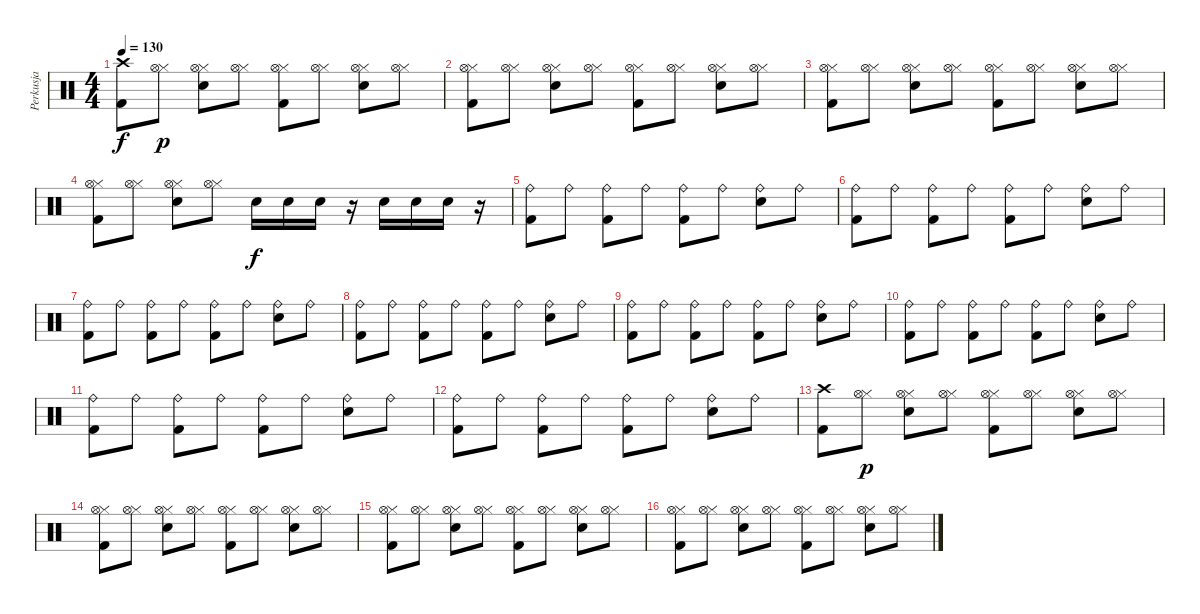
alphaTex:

\track ("Perkusja" "Perkusja") {instrument percussion}
\staff {score}
\articulation defaults
\ts (4 4)
\tempo 130
\clef neutral
\ks c
("Kick (hit) 2" "Crash high (hit)").8{dy f} ("Hi-Hat (closed)" "Hi-Hat (open)").8{dy p} ("Electric Snare (hit)" "Hi-Hat (closed)" "Hi-Hat (open)").8 ("Hi-Hat (closed)" "Hi-Hat (open)").8 ("Kick (hit) 2" "Hi-Hat (closed)" "Hi-Hat (open)").8 ("Hi-Hat (closed)" "Hi-Hat (open)").8 ("Electric Snare (hit)" "Hi-Hat (closed)" "Hi-Hat (open)").8 ("Hi-Hat (closed)" "Hi-Hat (open)").8 |
("Kick (hit) 2" "Hi-Hat (closed)" "Hi-Hat (open)").8 ("Hi-Hat (closed)" "Hi-Hat (open)").8 ("Electric Snare (hit)" "Hi-Hat (closed)" "Hi-Hat (open)").8 ("Hi-Hat (closed)" "Hi-Hat (open)").8 ("Kick (hit) 2" "Hi-Hat (closed)" "Hi-Hat (open)").8 ("Hi-Hat (closed)" "Hi-Hat (open)").8 ("Electric Snare (hit)" "Hi-Hat (closed)" "Hi-Hat (open)").8 ("Hi-Hat (closed)" "Hi-Hat (open)").8 |
("Kick (hit) 2" "Hi-Hat (closed)" "Hi-Hat (open)").8 ("Hi-Hat (closed)" "Hi-Hat (open)").8 ("Electric Snare (hit)" "Hi-Hat (closed)" "Hi-Hat (open)").8 ("Hi-Hat (closed)" "Hi-Hat (open)").8 ("Kick (hit) 2" "Hi-Hat (closed)" "Hi-Hat (open)").8 ("Hi-Hat (closed)" "Hi-Hat (open)").8 ("Electric Snare (hit)" "Hi-Hat (closed)" "Hi-Hat (open)").8 ("Hi-Hat (closed)" "Hi-Hat (open)").8 |
("Kick (hit) 2" "Hi-Hat (closed)" "Hi-Hat (open)").8 ("Hi-Hat (closed)" "Hi-Hat (open)").8 ("Electric Snare (hit)" "Hi-Hat (closed)" "Hi-Hat (open)").8 ("Hi-Hat (closed)" "Hi-Hat (open)").8 "Electric Snare (hit)".16{dy f} "Electric Snare (hit)".16 "Electric Snare (hit)".16 r.16 "Electric Snare (hit)".16 "Electric Snare (hit)".16 "Electric Snare (hit)".16 r.16 |
("Kick (hit) 2" "Ride (bell)").8 "Ride (bell)".8 ("Kick (hit) 2" "Ride (bell)").8 "Ride (bell)".8 ("Kick (hit) 2" "Ride (bell)").8 "Ride (bell)".8 ("Electric Snare (hit)" "Ride (bell)").8 "Ride (bell)".8 |
("Kick (hit) 2" "Ride (bell)").8 "Ride (bell)".8 ("Kick (hit) 2" "Ride (bell)").8 "Ride (bell)".8 ("Kick (hit) 2" "Ride (bell)").8 "Ride (bell)".8 ("Electric Snare (hit)" "Ride (bell)").8 "Ride (bell)".8 |
("Kick (hit) 2" "Ride (bell)").8 "Ride (bell)".8 ("Kick (hit) 2" "Ride (bell)").8 "Ride (bell)".8 ("Kick (hit) 2" "Ride (bell)").8 "Ride (bell)".8 ("Electric Snare (hit)" "Ride (bell)").8 "Ride (bell)".8 |
("Kick (hit) 2" "Ride (bell)").8 "Ride (bell)".8 ("Kick (hit) 2" "Ride (bell)").8 "Ride (bell)".8 ("Kick (hit) 2" "Ride (bell)").8 "Ride (bell)".8 ("Electric Snare (hit)" "Ride (bell)").8 "Ride (bell)".8 |
("Kick (hit) 2" "Ride (bell)").8 "Ride (bell)".8 ("Kick (hit) 2" "Ride (bell)").8 "Ride (bell)".8 ("Kick (hit) 2" "Ride (bell)").8 "Ride (bell)".8 ("Electric Snare (hit)" "Ride (bell)").8 "Ride (bell)".8 |
("Kick (hit) 2" "Ride (bell)").8 "Ride (bell)".8 ("Kick (hit) 2" "Ride (bell)").8 "Ride (bell)".8 ("Kick (hit) 2" "Ride (bell)").8 "Ride (bell)".8 ("Electric Snare (hit)" "Ride (bell)").8 "Ride (bell)".8 |
("Kick (hit) 2" "Ride (bell)").8 "Ride (bell)".8 ("Kick (hit) 2" "Ride (bell)").8 "Ride (bell)".8 ("Kick (hit) 2" "Ride (bell)").8 "Ride (bell)".8 ("Electric Snare (hit)" "Ride (bell)").8 "Ride (bell)".8 |
("Kick (hit) 2" "Ride (bell)").8 "Ride (bell)".8 ("Kick (hit) 2" "Ride (bell)").8 "Ride (bell)".8 ("Kick (hit) 2" "Ride (bell)").8 "Ride (bell)".8 ("Electric Snare (hit)" "Ride (bell)").8 "Ride (bell)".8 |
("Kick (hit) 2" "Crash high (hit)").8 ("Hi-Hat (closed)" "Hi-Hat (open)").8{dy p} ("Electric Snare (hit)" "Hi-Hat (closed)" "Hi-Hat (open)").8 ("Hi-Hat (closed)" "Hi-Hat (open)").8 ("Kick (hit) 2" "Hi-Hat (closed)" "Hi-Hat (open)").8 ("Hi-Hat (closed)" "Hi-Hat (open)").8 ("Electric Snare (hit)" "Hi-Hat (closed)" "Hi-Hat (open)").8 ("Hi-Hat (closed)" "Hi-Hat (open)").8 |
("Kick (hit) 2" "Hi-Hat (closed)" "Hi-Hat (open)").8 ("Hi-Hat (closed)" "Hi-Hat (open)").8 ("Electric Snare (hit)" "Hi-Hat (closed)" "Hi-Hat (open)").8 ("Hi-Hat (closed)" "Hi-Hat (open)").8 ("Kick (hit) 2" "Hi-Hat (closed)" "Hi-Hat (open)").8 ("Hi-Hat (closed)" "Hi-Hat (open)").8 ("Electric Snare (hit)" "Hi-Hat (closed)" "Hi-Hat (open)").8 ("Hi-Hat (closed)" "Hi-Hat (open)").8 |
("Kick (hit) 2" "Hi-Hat (closed)" "Hi-Hat (open)").8 ("Hi-Hat (closed)" "Hi-Hat (open)").8 ("Electric Snare (hit)" "Hi-Hat (closed)" "Hi-Hat (open)").8 ("Hi-Hat (closed)" "Hi-Hat (open)").8 ("Kick (hit) 2" "Hi-Hat (closed)" "Hi-Hat (open)").8 ("Hi-Hat (closed)" "Hi-Hat (open)").8 ("Electric Snare (hit)" "Hi-Hat (closed)" "Hi-Hat (open)").8 ("Hi-Hat (closed)" "Hi-Hat (open)").8 |
("Kick (hit) 2" "Hi-Hat (closed)" "Hi-Hat (open)").8 ("Hi-Hat (closed)" "Hi-Hat (open)").8 ("Electric Snare (hit)" "Hi-Hat (closed)" "Hi-Hat (open)").8 ("Hi-Hat (closed)" "Hi-Hat (open)").8 ("Kick (hit) 2" "Hi-Hat (closed)" "Hi-Hat (open)").8 ("Hi-Hat (closed)" "Hi-Hat (open)").8 ("Electric Snare (hit)" "Hi-Hat (closed)" "Hi-Hat (open)").8 ("Hi-Hat (closed)" "Hi-Hat (open)").8
